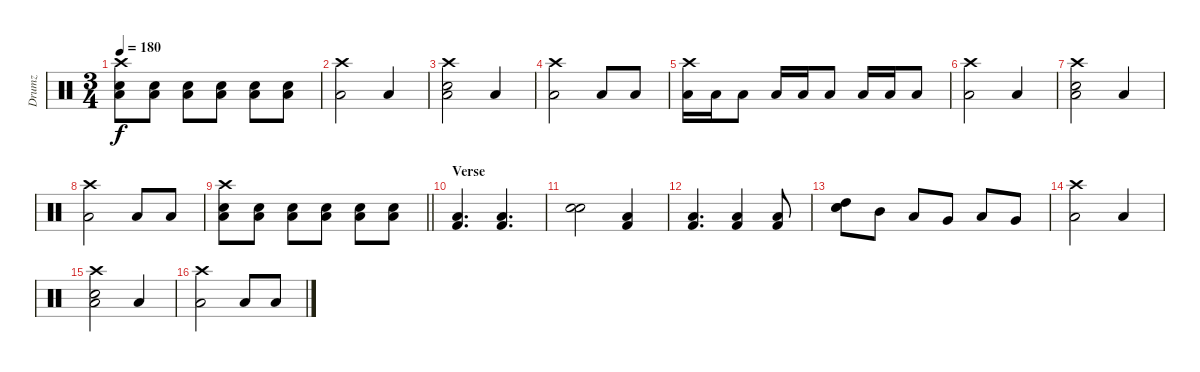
\track ("Drumz" "Drumz") {instrument percussion}
\staff {score}
\articulation defaults
\ts (3 4)
\tempo 180
\clef neutral
\ks c
("Low Floor Tom (hit)" "Crash high (hit)" "Snare (hit) 2").8{dy f} ("Low Floor Tom (hit)" "Snare (hit) 2").8 ("Low Floor Tom (hit)" "Snare (hit) 2").8 ("Low Floor Tom (hit)" "Snare (hit) 2").8 ("Low Floor Tom (hit)" "Snare (hit) 2").8 ("Low Floor Tom (hit)" "Snare (hit) 2").8 |
("Low Floor Tom (hit)" "Crash high (hit)").2 "Low Floor Tom (hit)".4 |
("Low Floor Tom (hit)" "Crash high (hit)" "Electric Snare (hit)").2 "Low Floor Tom (hit)".4 |
("Low Floor Tom (hit)" "Crash high (hit)").2 "Low Floor Tom (hit)".8 "Low Floor Tom (hit)".8 |
("Low Floor Tom (hit)" "Crash high (hit)").16 "Low Floor Tom (hit)".16 "Low Floor Tom (hit)".8 "Low Floor Tom (hit)".16 "Low Floor Tom (hit)".16 "Low Floor Tom (hit)".8 "Low Floor Tom (hit)".16 "Low Floor Tom (hit)".16 "Low Floor Tom (hit)".8 |
("Low Floor Tom (hit)" "Crash high (hit)").2 "Low Floor Tom (hit)".4 |
("Low Floor Tom (hit)" "Crash high (hit)" "Electric Snare (hit)").2 "Low Floor Tom (hit)".4 |
("Low Floor Tom (hit)" "Crash high (hit)").2 "Low Floor Tom (hit)".8 "Low Floor Tom (hit)".8 |
\barLineRight lightlight
("Low Floor Tom (hit)" "Crash high (hit)" "Snare (hit) 2").8 ("Low Floor Tom (hit)" "Snare (hit) 2").8 ("Low Floor Tom (hit)" "Snare (hit) 2").8 ("Low Floor Tom (hit)" "Snare (hit) 2").8 ("Low Floor Tom (hit)" "Snare (hit) 2").8 ("Low Floor Tom (hit)" "Snare (hit) 2").8 |
\section ("" "Verse")
("Kick (hit) 2" "Low Floor Tom (hit)").4{d} ("Kick (hit) 2" "Low Floor Tom (hit)").4{d} |
("Electric Snare (hit)" "Electric Snare (hit)").2 ("Kick (hit) 2" "Low Floor Tom (hit)").4 |
("Kick (hit) 2" "Low Floor Tom (hit)").4{d} ("Kick (hit) 2" "Low Floor Tom (hit)").4 ("Kick (hit) 2" "Low Floor Tom (hit)").8 |
("Electric Snare (hit)" "Electric Snare (hit)" "High Tom (hit)").8 "Mid Tom (hit)".8 "Low Tom (hit)".8 "Very Low Tom (hit)".8 "Low Tom (hit)".8 "Very Low Tom (hit)".8 |
("Low Floor Tom (hit)" "Crash high (hit)").2 "Low Floor Tom (hit)".4 |
("Low Floor Tom (hit)" "Crash high (hit)" "Electric Snare (hit)").2 "Low Floor Tom (hit)".4 |
("Low Floor Tom (hit)" "Crash high (hit)").2 "Low Floor Tom (hit)".8 "Low Floor Tom (hit)".8
